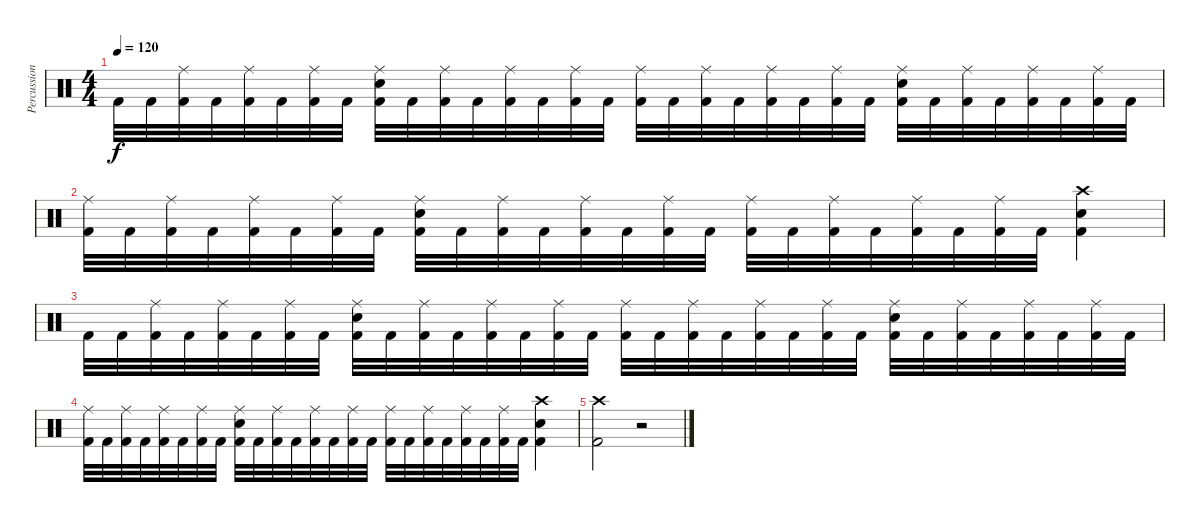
\track ("Percussion" "Percussion") {instrument percussion}
\staff {score}
\articulation defaults
\ts (4 4)
\tempo 120
\clef neutral
\ks c "Kick (hit) 2".32{dy f volume 10} "Kick (hit) 2".32
("Ride (middle)" "Kick (hit) 2").32 "Kick (hit) 2".32 ("Ride (middle)" "Kick (hit) 2").32 "Kick (hit) 2".32 ("Ride (middle)" "Kick (hit) 2").32 "Kick (hit) 2".32 ("Ride (middle)" "Snare (hit) 2" "Kick (hit) 2").32 "Kick (hit) 2".32 ("Ride (middle)" "Kick (hit) 2").32 "Kick (hit) 2".32 ("Ride (middle)" "Kick (hit) 2").32 "Kick (hit) 2".32 ("Ride (middle)" "Kick (hit) 2").32 "Kick (hit) 2".32 ("Ride (middle)" "Kick (hit) 2").32 "Kick (hit) 2".32 ("Ride (middle)" "Kick (hit) 2").32 "Kick (hit) 2".32 ("Ride (middle)" "Kick (hit) 2").32 "Kick (hit) 2".32 ("Ride (middle)" "Kick (hit) 2").32 "Kick (hit) 2".32 ("Ride (middle)" "Snare (hit) 2" "Kick (hit) 2").32 "Kick (hit) 2".32 ("Ride (middle)" "Kick (hit) 2").32 "Kick (hit) 2".32 ("Ride (middle)" "Kick (hit) 2").32 "Kick (hit) 2".32 ("Ride (middle)" "Kick (hit) 2").32 "Kick (hit) 2".32 |
("Ride (middle)" "Kick (hit) 2").32 "Kick (hit) 2".32 ("Ride (middle)" "Kick (hit) 2").32 "Kick (hit) 2".32 ("Ride (middle)" "Kick (hit) 2").32 "Kick (hit) 2".32 ("Ride (middle)" "Kick (hit) 2").32 "Kick (hit) 2".32 ("Ride (middle)" "Snare (hit) 2" "Kick (hit) 2").32 "Kick (hit) 2".32 ("Ride (middle)" "Kick (hit) 2").32 "Kick (hit) 2".32 ("Ride (middle)" "Kick (hit) 2").32 "Kick (hit) 2".32 ("Ride (middle)" "Kick (hit) 2").32 "Kick (hit) 2".32 ("Ride (middle)" "Kick (hit) 2").32 "Kick (hit) 2".32 ("Ride (middle)" "Kick (hit) 2").32 "Kick (hit) 2".32 ("Ride (middle)" "Kick (hit) 2").32 "Kick (hit) 2".32 ("Ride (middle)" "Kick (hit) 2").32 "Kick (hit) 2".32 ("Crash high (hit)" "Snare (hit) 2" "Kick (hit) 2").4 |
"Kick (hit) 2".32{volume 4} "Kick (hit) 2".32 ("Ride (middle)" "Kick (hit) 2").32 "Kick (hit) 2".32 ("Ride (middle)" "Kick (hit) 2").32 "Kick (hit) 2".32 ("Ride (middle)" "Kick (hit) 2").32 "Kick (hit) 2".32 ("Ride (middle)" "Snare (hit) 2" "Kick (hit) 2").32 "Kick (hit) 2".32 ("Ride (middle)" "Kick (hit) 2").32 "Kick (hit) 2".32 ("Ride (middle)" "Kick (hit) 2").32 "Kick (hit) 2".32 ("Ride (middle)" "Kick (hit) 2").32 "Kick (hit) 2".32 ("Ride (middle)" "Kick (hit) 2").32 "Kick (hit) 2".32 ("Ride (middle)" "Kick (hit) 2").32 "Kick (hit) 2".32 ("Ride (middle)" "Kick (hit) 2").32 "Kick (hit) 2".32 ("Ride (middle)" "Kick (hit) 2").32 "Kick (hit) 2".32 ("Ride (middle)" "Snare (hit) 2" "Kick (hit) 2").32 "Kick (hit) 2".32 ("Ride (middle)" "Kick (hit) 2").32 "Kick (hit) 2".32 ("Ride (middle)" "Kick (hit) 2").32 "Kick (hit) 2".32 ("Ride (middle)" "Kick (hit) 2").32 "Kick (hit) 2".32 |
("Ride (middle)" "Kick (hit) 2").32 "Kick (hit) 2".32 ("Ride (middle)" "Kick (hit) 2").32 "Kick (hit) 2".32 ("Ride (middle)" "Kick (hit) 2").32 "Kick (hit) 2".32 ("Ride (middle)" "Kick (hit) 2").32 "Kick (hit) 2".32 ("Ride (middle)" "Snare (hit) 2" "Kick (hit) 2").32 "Kick (hit) 2".32 ("Ride (middle)" "Kick (hit) 2").32 "Kick (hit) 2".32 ("Ride (middle)" "Kick (hit) 2").32 "Kick (hit) 2".32 ("Ride (middle)" "Kick (hit) 2").32 "Kick (hit) 2".32 ("Ride (middle)" "Kick (hit) 2").32 "Kick (hit) 2".32 ("Ride (middle)" "Kick (hit) 2").32 "Kick (hit) 2".32 ("Ride (middle)" "Kick (hit) 2").32 "Kick (hit) 2".32 ("Ride (middle)" "Kick (hit) 2").32 "Kick (hit) 2".32 ("Crash high (hit)" "Snare (hit) 2" "Kick (hit) 2").4 |
("Crash high (hit)" "Kick (hit) 2").2{volume 0} r.2
